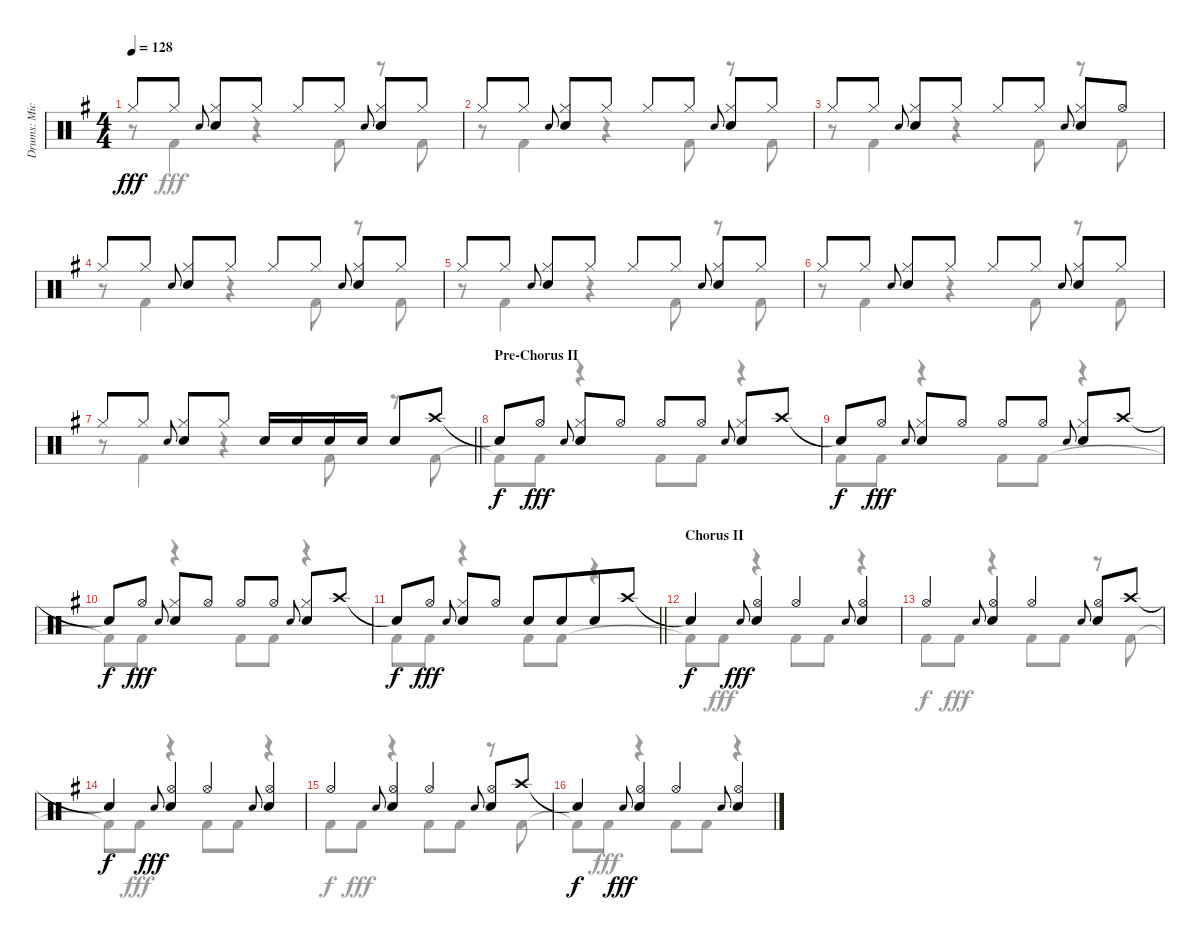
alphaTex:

\track ("Drums: Mick" "Drums: Mic") {instrument percussion}
\staff {score}
\articulation defaults
\voice
\ts (4 4)
\tempo 128
\clef neutral
\ks g "Hi-Hat (closed)".8{dy fff} "Hi-Hat (closed)".8 "Electric Snare (hit)".8{gr onbeat beam merge}
("Hi-Hat (closed)" "Snare (hit) 2").8 "Hi-Hat (closed)".8 "Hi-Hat (closed)".8 "Hi-Hat (closed)".8 "Electric Snare (hit)".8{gr onbeat beam merge} ("Hi-Hat (closed)" "Snare (hit) 2").8 "Hi-Hat (closed)".8 |
"Hi-Hat (closed)".8 "Hi-Hat (closed)".8 "Electric Snare (hit)".8{gr onbeat beam merge} ("Hi-Hat (closed)" "Snare (hit) 2").8 "Hi-Hat (closed)".8 "Hi-Hat (closed)".8 "Hi-Hat (closed)".8 "Electric Snare (hit)".8{gr onbeat beam merge} ("Hi-Hat (closed)" "Snare (hit) 2").8 "Hi-Hat (closed)".8 |
"Hi-Hat (closed)".8 "Hi-Hat (closed)".8 "Electric Snare (hit)".8{gr onbeat beam merge} ("Hi-Hat (closed)" "Snare (hit) 2").8 "Hi-Hat (closed)".8 "Hi-Hat (closed)".8 "Hi-Hat (closed)".8 "Electric Snare (hit)".8{gr onbeat beam merge} ("Hi-Hat (closed)" "Snare (hit) 2").8 "Hi-Hat (open)".8 |
"Hi-Hat (closed)".8 "Hi-Hat (closed)".8 "Electric Snare (hit)".8{gr onbeat beam merge} ("Hi-Hat (closed)" "Snare (hit) 2").8 "Hi-Hat (closed)".8 "Hi-Hat (closed)".8 "Hi-Hat (closed)".8 "Electric Snare (hit)".8{gr onbeat beam merge} ("Hi-Hat (closed)" "Snare (hit) 2").8 "Hi-Hat (closed)".8 |
"Hi-Hat (closed)".8 "Hi-Hat (closed)".8 "Electric Snare (hit)".8{gr onbeat beam merge} ("Hi-Hat (closed)" "Snare (hit) 2").8 "Hi-Hat (closed)".8 "Hi-Hat (closed)".8 "Hi-Hat (closed)".8 "Electric Snare (hit)".8{gr onbeat beam merge} ("Hi-Hat (closed)" "Snare (hit) 2").8 "Hi-Hat (closed)".8 |
"Hi-Hat (closed)".8 "Hi-Hat (closed)".8 "Electric Snare (hit)".8{gr onbeat beam merge} ("Hi-Hat (closed)" "Snare (hit) 2").8 "Hi-Hat (closed)".8 "Hi-Hat (closed)".8 "Hi-Hat (closed)".8 "Electric Snare (hit)".8{gr onbeat beam merge} ("Hi-Hat (closed)" "Snare (hit) 2").8 "Hi-Hat (closed)".8 |
\barLineRight lightlight "Hi-Hat (closed)".8 "Hi-Hat (closed)".8 "Electric Snare (hit)".8{gr onbeat beam merge}
("Hi-Hat (closed)" "Snare (hit) 2").8 "Hi-Hat (closed)".8 "Snare (hit) 2".16 "Snare (hit) 2".16 "Snare (hit) 2".16 "Snare (hit) 2".16 "Snare (hit) 2".8 "Crash high (hit)".8 |
\section ("" "Pre-Chorus II")
"Snare (hit)"{t}.8{dy f} "Hi-Hat (open)".8{dy fff} "Electric Snare (hit)".8{gr onbeat beam merge} ("Hi-Hat (closed)" "Snare (hit) 2").8 "Hi-Hat (open)".8 "Hi-Hat (open)".8 "Hi-Hat (open)".8 "Electric Snare (hit)".8{gr onbeat beam merge} ("Hi-Hat (closed)" "Snare (hit) 2").8 "Crash high (hit)".8 |
"Snare (hit)"{t}.8{dy f} "Hi-Hat (open)".8{dy fff} "Electric Snare (hit)".8{gr onbeat beam merge} ("Hi-Hat (closed)" "Snare (hit) 2").8 "Hi-Hat (open)".8 "Hi-Hat (open)".8 "Hi-Hat (open)".8 "Electric Snare (hit)".8{gr onbeat beam merge} ("Hi-Hat (closed)" "Snare (hit) 2").8 "Crash high (hit)".8 |
"Snare (hit)"{t}.8{dy f} "Hi-Hat (open)".8{dy fff} "Electric Snare (hit)".8{gr onbeat beam merge} ("Hi-Hat (closed)" "Snare (hit) 2").8 "Hi-Hat (open)".8 "Hi-Hat (open)".8 "Hi-Hat (open)".8 "Electric Snare (hit)".8{gr onbeat beam merge} ("Hi-Hat (closed)" "Snare (hit) 2").8 "Crash high (hit)".8 |
\barLineRight lightlight "Snare (hit)"{t}.8{dy f} "Hi-Hat (open)".8{dy fff} "Electric Snare (hit)".8{gr onbeat beam merge}
("Hi-Hat (closed)" "Snare (hit) 2").8 "Hi-Hat (open)".8 "Snare (hit) 2".8 "Snare (hit) 2".8{beam merge} "Snare (hit) 2".8 "Crash high (hit)".8 |
\section ("" "Chorus II")
"Snare (hit)"{t}.4{dy f} "Electric Snare (hit)".8{gr onbeat dy fff} ("Hi-Hat (open)" "Snare (hit) 2").4 "Hi-Hat (open)".4 "Electric Snare (hit)".8{gr onbeat} ("Hi-Hat (open)" "Snare (hit) 2").4 |
"Hi-Hat (open)".4 "Electric Snare (hit)".8{gr onbeat} ("Hi-Hat (open)" "Snare (hit) 2").4 "Hi-Hat (open)".4 "Electric Snare (hit)".8{gr onbeat} ("Hi-Hat (open)" "Snare (hit) 2").8 "Crash high (hit)".8 |
"Snare (hit)"{t}.4{dy f} "Electric Snare (hit)".8{gr onbeat dy fff} ("Hi-Hat (open)" "Snare (hit) 2").4 "Hi-Hat (open)".4 "Electric Snare (hit)".8{gr onbeat} ("Hi-Hat (open)" "Snare (hit) 2").4 |
"Hi-Hat (open)".4 "Electric Snare (hit)".8{gr onbeat} ("Hi-Hat (open)" "Snare (hit) 2").4 "Hi-Hat (open)".4 "Electric Snare (hit)".8{gr onbeat} ("Hi-Hat (open)" "Snare (hit) 2").8 "Crash high (hit)".8 |
"Snare (hit)"{t}.4{dy f} "Electric Snare (hit)".8{gr onbeat dy fff} ("Hi-Hat (open)" "Snare (hit) 2").4 "Hi-Hat (open)".4 "Electric Snare (hit)".8{gr onbeat} ("Hi-Hat (open)" "Snare (hit) 2").4
\voice
\clef neutral
\ottava regular
\simile none
\ks g
r.8{dy fff} "Kick (hit) 2".4 r.4 "Kick (hit) 2".8 r.8 "Kick (hit) 2".8 |
r.8 "Kick (hit) 2".4 r.4 "Kick (hit) 2".8 r.8 "Kick (hit) 2".8 |
r.8 "Kick (hit) 2".4 r.4 "Kick (hit) 2".8 r.8 "Kick (hit) 2".8 |
r.8 "Kick (hit) 2".4 r.4 "Kick (hit) 2".8 r.8 "Kick (hit) 2".8 |
r.8 "Kick (hit) 2".4 r.4 "Kick (hit) 2".8 r.8 "Kick (hit) 2".8 |
r.8 "Kick (hit) 2".4 r.4 "Kick (hit) 2".8 r.8 "Kick (hit) 2".8 |
\barLineRight lightlight
r.8 "Kick (hit) 2".4 r.4 "Kick (hit) 2".8 r.8 "Kick (hit) 2".8 |
"Kick (hit) 2"{t}.8{dy f} "Kick (hit) 2".8{dy fff} r.4 "Kick (hit) 2".8 "Kick (hit) 2".8 r.4 |
"Kick (hit) 2".8{dy f} "Kick (hit) 2".8{dy fff} r.4 "Kick (hit) 2".8 "Kick (hit) 2".8 r.4 |
"Kick (hit) 2"{t}.8{dy f} "Kick (hit) 2".8{dy fff} r.4 "Kick (hit) 2".8 "Kick (hit) 2".8 r.4 |
\barLineRight lightlight "Kick (hit) 2".8{dy f} "Kick (hit) 2".8{dy fff}
r.4 "Kick (hit) 2".8 "Kick (hit) 2".8 r.4 |
"Kick (hit) 2"{t}.8{dy f} "Kick (hit) 2".8{dy fff} r.4 "Kick (hit) 2".8 "Kick (hit) 2".8 r.4 |
"Kick (hit) 2".8{dy f} "Kick (hit) 2".8{dy fff} r.4 "Kick (hit) 2".8 "Kick (hit) 2".8 r.8 "Kick (hit) 2".8 |
"Kick (hit) 2"{t}.8{dy f} "Kick (hit) 2".8{dy fff} r.4 "Kick (hit) 2".8 "Kick (hit) 2".8 r.4 |
"Kick (hit) 2".8{dy f} "Kick (hit) 2".8{dy fff} r.4 "Kick (hit) 2".8 "Kick (hit) 2".8 r.8 "Kick (hit) 2".8 |
"Kick (hit) 2"{t}.8{dy f} "Kick (hit) 2".8{dy fff} r.4 "Kick (hit) 2".8 "Kick (hit) 2".8 r.4
